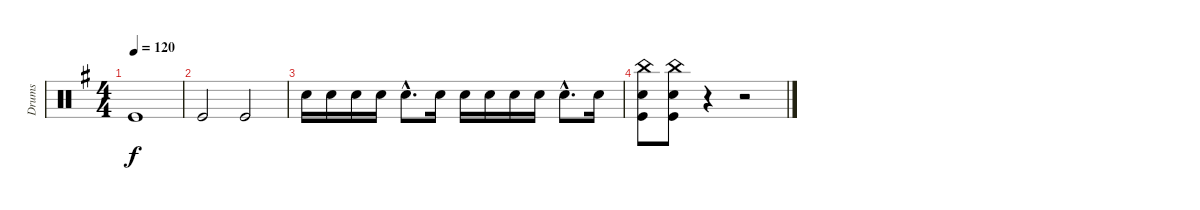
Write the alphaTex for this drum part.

\track ("Drums" "Drums") {instrument percussion}
\staff {score}
\articulation defaults
\ts (4 4)
\tempo 120
\clef neutral
\ks eminor "Kick (hit)".1{dy f}
|
"Kick (hit)".2 "Kick (hit)".2 |
"Snare (hit) 2".16 "Snare (hit) 2".16 "Snare (hit) 2".16 "Snare (hit) 2".16 "Snare (hit) 2"{hac}.8{d} "Snare (hit) 2".16 "Snare (hit) 2".16 "Snare (hit) 2".16 "Snare (hit) 2".16 "Snare (hit) 2".16 "Snare (hit) 2"{hac}.8{d} "Snare (hit) 2".16 |
("China (hit)" "Snare (hit) 2" "Kick (hit)").8 ("China (hit)" "Snare (hit) 2" "Kick (hit)").8 r.4 r.2
